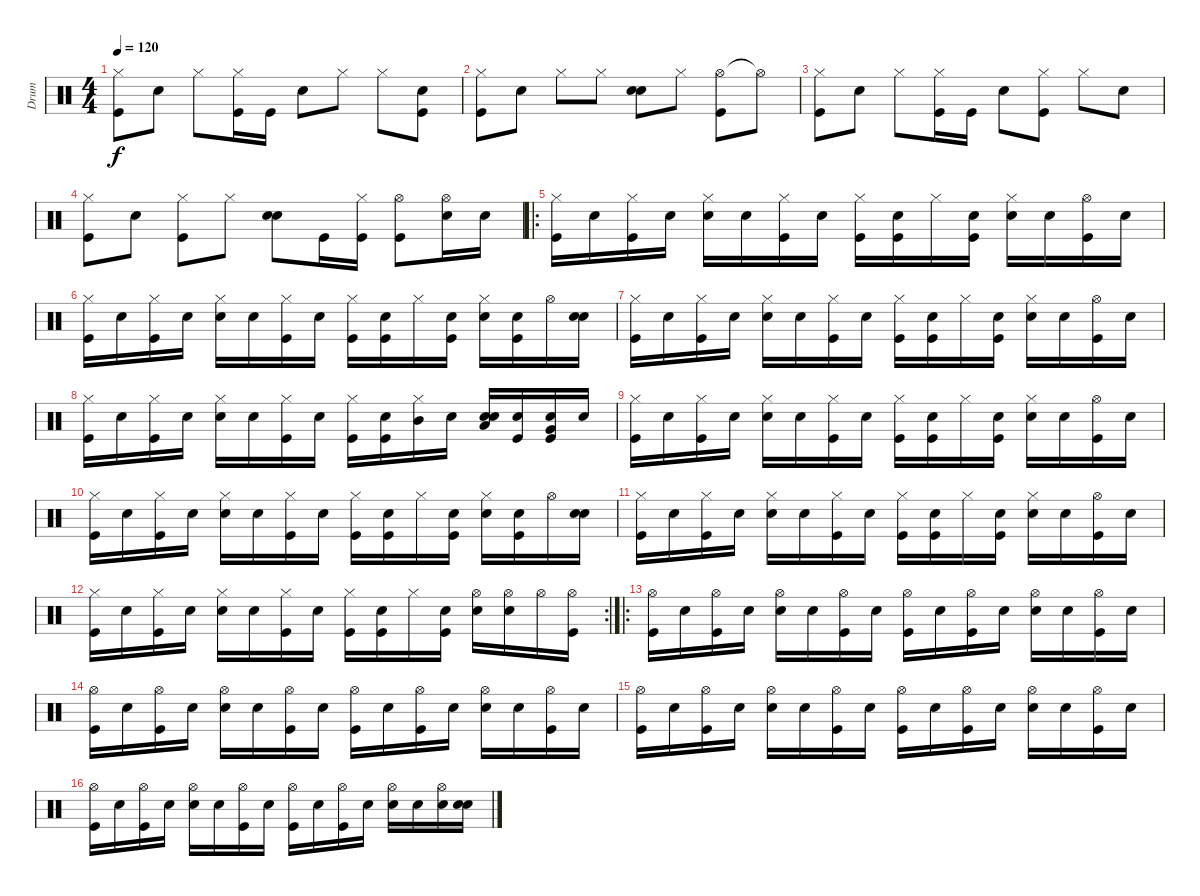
\track ("Drum" "Drum") {instrument percussion}
\staff {score}
\articulation defaults
\ts (4 4)
\tempo 120
\clef neutral
\ks c
("Hi-Hat (closed)" "Kick (hit)").8{dy f} "Snare (hit)".8 "Hi-Hat (closed)".8 ("Hi-Hat (closed)" "Kick (hit)").16 "Kick (hit)".16 "Electric Snare (hit)".8 "Hi-Hat (closed)".8 "Hi-Hat (closed)".8 ("Snare (hit)" "Kick (hit)").8 |
("Hi-Hat (closed)" "Kick (hit)").8 "Snare (hit)".8 "Hi-Hat (closed)".8 "Hi-Hat (closed)".8 ("Snare (hit)" "Electric Snare (hit)").8 "Hi-Hat (closed)".8 ("Hi-Hat (open)" "Kick (hit)").8 "Hi-Hat (open)"{t}.8 |
("Hi-Hat (closed)" "Kick (hit)").8 "Snare (hit)".8 "Hi-Hat (closed)".8 ("Hi-Hat (closed)" "Kick (hit)").16 "Kick (hit)".16 "Electric Snare (hit)".8 ("Hi-Hat (closed)" "Kick (hit)").8 "Hi-Hat (closed)".8 "Snare (hit)".8 |
("Hi-Hat (closed)" "Kick (hit)").8 "Snare (hit)".8 ("Hi-Hat (closed)" "Kick (hit)").8 "Hi-Hat (closed)".8 ("Snare (hit)" "Electric Snare (hit)").8 "Kick (hit)".16 ("Hi-Hat (closed)" "Kick (hit)").16 ("Hi-Hat (open)" "Kick (hit)").8 ("Hi-Hat (open)" "Electric Snare (hit)").16 "Electric Snare (hit)".16 |
\ro
("Hi-Hat (closed)" "Kick (hit)").16 "Snare (hit)".16 ("Hi-Hat (closed)" "Kick (hit)").16 "Snare (hit)".16 ("Hi-Hat (closed)" "Electric Snare (hit)").16 "Snare (hit)".16 ("Hi-Hat (closed)" "Kick (hit)").16 "Snare (hit)".16 ("Hi-Hat (closed)" "Kick (hit)").16 ("Snare (hit)" "Kick (hit)").16 "Hi-Hat (closed)".16 ("Snare (hit)" "Kick (hit)").16 ("Hi-Hat (closed)" "Electric Snare (hit)").16 "Snare (hit)".16 ("Hi-Hat (open)" "Kick (hit)").16 "Snare (hit)".16 |
("Hi-Hat (closed)" "Kick (hit)").16 "Snare (hit)".16 ("Hi-Hat (closed)" "Kick (hit)").16 "Snare (hit)".16 ("Hi-Hat (closed)" "Electric Snare (hit)").16 "Snare (hit)".16 ("Hi-Hat (closed)" "Kick (hit)").16 "Snare (hit)".16 ("Hi-Hat (closed)" "Kick (hit)").16 ("Snare (hit)" "Kick (hit)").16 "Hi-Hat (closed)".16 ("Snare (hit)" "Kick (hit)").16 ("Hi-Hat (closed)" "Electric Snare (hit)").16 ("Snare (hit)" "Kick (hit)").16 "Hi-Hat (open)".16 ("Snare (hit)" "Electric Snare (hit)").16 |
("Hi-Hat (closed)" "Kick (hit)").16 "Snare (hit)".16 ("Hi-Hat (closed)" "Kick (hit)").16 "Snare (hit)".16 ("Hi-Hat (closed)" "Electric Snare (hit)").16 "Snare (hit)".16 ("Hi-Hat (closed)" "Kick (hit)").16 "Snare (hit)".16 ("Hi-Hat (closed)" "Kick (hit)").16 ("Snare (hit)" "Kick (hit)").16 "Hi-Hat (closed)".16 ("Snare (hit)" "Kick (hit)").16 ("Hi-Hat (closed)" "Electric Snare (hit)").16 "Snare (hit)".16 ("Hi-Hat (open)" "Kick (hit)").16 "Snare (hit)".16 |
("Hi-Hat (closed)" "Kick (hit)").16 "Snare (hit)".16 ("Hi-Hat (closed)" "Kick (hit)").16 "Snare (hit)".16 ("Hi-Hat (closed)" "Electric Snare (hit)").16 "Snare (hit)".16 ("Hi-Hat (closed)" "Kick (hit)").16 "Snare (hit)".16 ("Hi-Hat (closed)" "Kick (hit)").16 ("Snare (hit)" "Kick (hit)").16 ("Hi-Hat (closed)" "Mid Tom (hit)").16 "Snare (hit)".16 ("Snare (hit)" "Low Tom (hit)" "Electric Snare (hit)").16 ("Snare (hit)" "Kick (hit)").16 ("Snare (hit)" "Very Low Tom (hit)" "Kick (hit)").16 "Snare (hit)".16 |
("Hi-Hat (closed)" "Kick (hit)").16 "Snare (hit)".16 ("Hi-Hat (closed)" "Kick (hit)").16 "Snare (hit)".16 ("Hi-Hat (closed)" "Electric Snare (hit)").16 "Snare (hit)".16 ("Hi-Hat (closed)" "Kick (hit)").16 "Snare (hit)".16 ("Hi-Hat (closed)" "Kick (hit)").16 ("Snare (hit)" "Kick (hit)").16 "Hi-Hat (closed)".16 ("Snare (hit)" "Kick (hit)").16 ("Hi-Hat (closed)" "Electric Snare (hit)").16 "Snare (hit)".16 ("Hi-Hat (open)" "Kick (hit)").16 "Snare (hit)".16 |
("Hi-Hat (closed)" "Kick (hit)").16 "Snare (hit)".16 ("Hi-Hat (closed)" "Kick (hit)").16 "Snare (hit)".16 ("Hi-Hat (closed)" "Electric Snare (hit)").16 "Snare (hit)".16 ("Hi-Hat (closed)" "Kick (hit)").16 "Snare (hit)".16 ("Hi-Hat (closed)" "Kick (hit)").16 ("Snare (hit)" "Kick (hit)").16 "Hi-Hat (closed)".16 ("Snare (hit)" "Kick (hit)").16 ("Hi-Hat (closed)" "Electric Snare (hit)").16 ("Snare (hit)" "Kick (hit)").16 "Hi-Hat (open)".16 ("Snare (hit)" "Electric Snare (hit)").16 |
("Hi-Hat (closed)" "Kick (hit)").16 "Snare (hit)".16 ("Hi-Hat (closed)" "Kick (hit)").16 "Snare (hit)".16 ("Hi-Hat (closed)" "Electric Snare (hit)").16 "Snare (hit)".16 ("Hi-Hat (closed)" "Kick (hit)").16 "Snare (hit)".16 ("Hi-Hat (closed)" "Kick (hit)").16 ("Snare (hit)" "Kick (hit)").16 "Hi-Hat (closed)".16 ("Snare (hit)" "Kick (hit)").16 ("Hi-Hat (closed)" "Electric Snare (hit)").16 "Snare (hit)".16 ("Hi-Hat (open)" "Kick (hit)").16 "Snare (hit)".16 |
\rc 2
("Hi-Hat (closed)" "Kick (hit)").16 "Snare (hit)".16 ("Hi-Hat (closed)" "Kick (hit)").16 "Snare (hit)".16 ("Hi-Hat (closed)" "Electric Snare (hit)").16 "Snare (hit)".16 ("Hi-Hat (closed)" "Kick (hit)").16 "Snare (hit)".16 ("Hi-Hat (closed)" "Kick (hit)").16 ("Snare (hit)" "Kick (hit)").16 "Hi-Hat (closed)".16 ("Snare (hit)" "Kick (hit)").16 ("Hi-Hat (open)" "Electric Snare (hit)").16 ("Hi-Hat (open)" "Electric Snare (hit)").16 "Hi-Hat (open)".16 ("Hi-Hat (open)" "Kick (hit)").16 |
\ro
("Hi-Hat (open)" "Kick (hit)").16 "Snare (hit)".16 ("Hi-Hat (open)" "Kick (hit)").16 "Snare (hit)".16 ("Hi-Hat (open)" "Electric Snare (hit)").16 "Snare (hit)".16 ("Hi-Hat (open)" "Kick (hit)").16 "Snare (hit)".16 ("Hi-Hat (open)" "Kick (hit)").16 "Snare (hit)".16 ("Hi-Hat (open)" "Kick (hit)").16 "Snare (hit)".16 ("Hi-Hat (open)" "Electric Snare (hit)").16 "Snare (hit)".16 ("Hi-Hat (open)" "Kick (hit)").16 "Snare (hit)".16 |
("Hi-Hat (open)" "Kick (hit)").16 "Snare (hit)".16 ("Hi-Hat (open)" "Kick (hit)").16 "Snare (hit)".16 ("Hi-Hat (open)" "Electric Snare (hit)").16 "Snare (hit)".16 ("Hi-Hat (open)" "Kick (hit)").16 "Snare (hit)".16 ("Hi-Hat (open)" "Kick (hit)").16 "Snare (hit)".16 ("Hi-Hat (open)" "Kick (hit)").16 "Snare (hit)".16 ("Hi-Hat (open)" "Electric Snare (hit)").16 "Snare (hit)".16 ("Hi-Hat (open)" "Kick (hit)").16 "Snare (hit)".16 |
("Hi-Hat (open)" "Kick (hit)").16 "Snare (hit)".16 ("Hi-Hat (open)" "Kick (hit)").16 "Snare (hit)".16 ("Hi-Hat (open)" "Electric Snare (hit)").16 "Snare (hit)".16 ("Hi-Hat (open)" "Kick (hit)").16 "Snare (hit)".16 ("Hi-Hat (open)" "Kick (hit)").16 "Snare (hit)".16 ("Hi-Hat (open)" "Kick (hit)").16 "Snare (hit)".16 ("Hi-Hat (open)" "Electric Snare (hit)").16 "Snare (hit)".16 ("Hi-Hat (open)" "Kick (hit)").16 "Snare (hit)".16 |
("Hi-Hat (open)" "Kick (hit)").16 "Snare (hit)".16 ("Hi-Hat (open)" "Kick (hit)").16 "Snare (hit)".16 ("Hi-Hat (open)" "Electric Snare (hit)").16 "Snare (hit)".16 ("Hi-Hat (open)" "Kick (hit)").16 "Snare (hit)".16 ("Hi-Hat (open)" "Kick (hit)").16 "Snare (hit)".16 ("Hi-Hat (open)" "Kick (hit)").16 "Snare (hit)".16 ("Hi-Hat (open)" "Electric Snare (hit)").16 "Snare (hit)".16 ("Hi-Hat (open)" "Electric Snare (hit)").16 ("Snare (hit)" "Electric Snare (hit)").16
